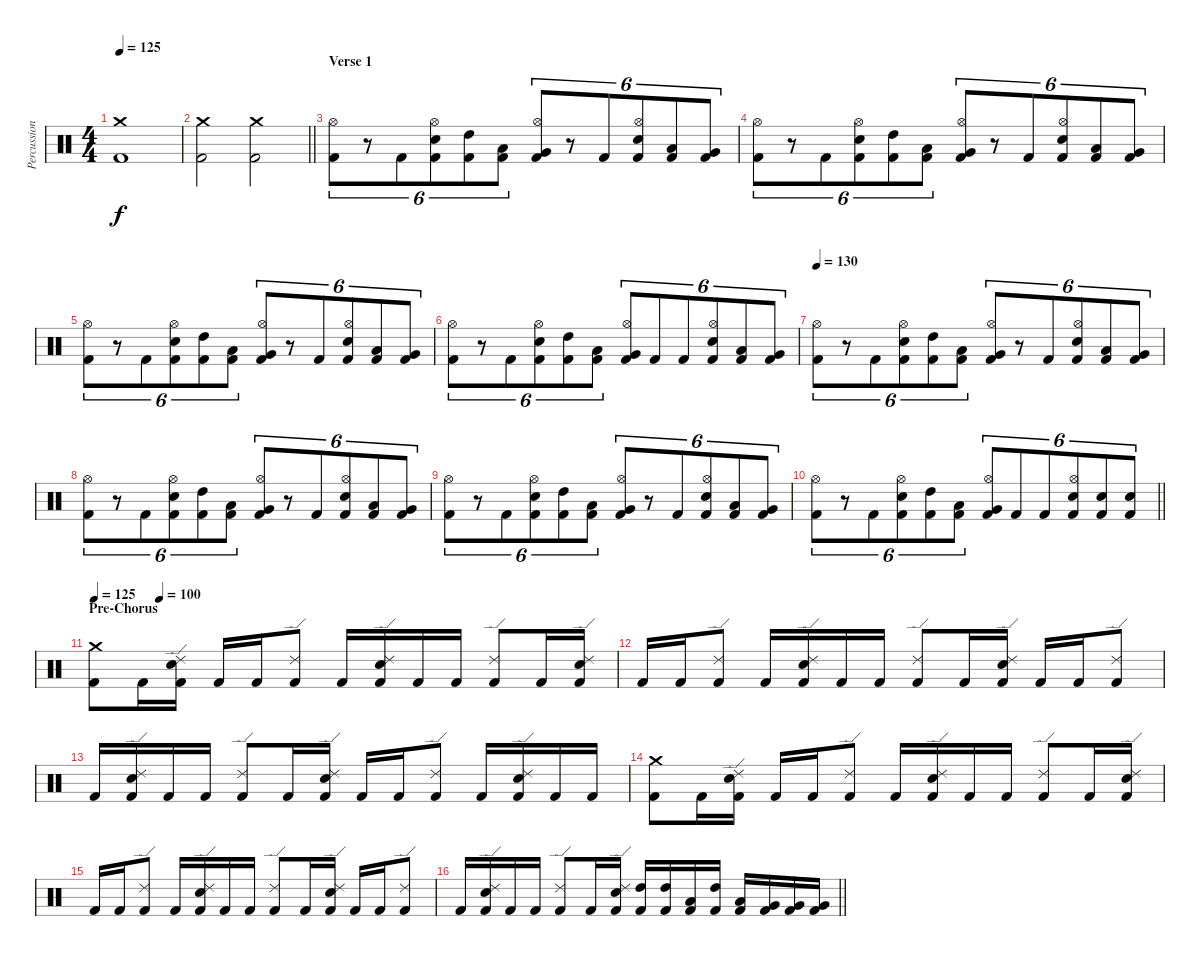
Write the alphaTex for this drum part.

\track ("Percussion" "Percussion") {instrument percussion}
\staff {score}
\articulation defaults
\ts (4 4)
\tempo 125
\clef neutral
\ks c
("Crash medium (hit)" "Kick (hit) 2").1{dy f} |
\barLineRight lightlight
("Crash medium (hit)" "Kick (hit) 2").2 ("Crash medium (hit)" "Kick (hit) 2").2 |
\section ("" "Verse 1")
("Hi-Hat (open)" "Kick (hit) 2").8{tu (6 4)} r.8{tu (6 4)} "Kick (hit) 2".8{tu (6 4)} ("Hi-Hat (open)" "Snare (hit) 2" "Kick (hit) 2").8{tu (6 4)} ("High Tom (hit)" "Kick (hit) 2").8{tu (6 4)} ("Low Tom (hit)" "Kick (hit) 2").8{tu (6 4)} ("Hi-Hat (open)" "Very Low Tom (hit)" "Kick (hit) 2").8{tu (6 4)} r.8{tu (6 4)} "Kick (hit) 2".8{tu (6 4)} ("Hi-Hat (open)" "Snare (hit) 2" "Kick (hit) 2").8{tu (6 4)} ("Low Tom (hit)" "Kick (hit) 2").8{tu (6 4)} ("Very Low Tom (hit)" "Kick (hit) 2").8{tu (6 4)} |
("Hi-Hat (open)" "Kick (hit) 2").8{tu (6 4)} r.8{tu (6 4)} "Kick (hit) 2".8{tu (6 4)} ("Hi-Hat (open)" "Snare (hit) 2" "Kick (hit) 2").8{tu (6 4)} ("High Tom (hit)" "Kick (hit) 2").8{tu (6 4)} ("Low Tom (hit)" "Kick (hit) 2").8{tu (6 4)} ("Hi-Hat (open)" "Very Low Tom (hit)" "Kick (hit) 2").8{tu (6 4)} r.8{tu (6 4)} "Kick (hit) 2".8{tu (6 4)} ("Hi-Hat (open)" "Snare (hit) 2" "Kick (hit) 2").8{tu (6 4)} ("Low Tom (hit)" "Kick (hit) 2").8{tu (6 4)} ("Very Low Tom (hit)" "Kick (hit) 2").8{tu (6 4)} |
("Hi-Hat (open)" "Kick (hit) 2").8{tu (6 4)} r.8{tu (6 4)} "Kick (hit) 2".8{tu (6 4)} ("Hi-Hat (open)" "Snare (hit) 2" "Kick (hit) 2").8{tu (6 4)} ("High Tom (hit)" "Kick (hit) 2").8{tu (6 4)} ("Low Tom (hit)" "Kick (hit) 2").8{tu (6 4)} ("Hi-Hat (open)" "Very Low Tom (hit)" "Kick (hit) 2").8{tu (6 4)} r.8{tu (6 4)} "Kick (hit) 2".8{tu (6 4)} ("Hi-Hat (open)" "Snare (hit) 2" "Kick (hit) 2").8{tu (6 4)} ("Low Tom (hit)" "Kick (hit) 2").8{tu (6 4)} ("Very Low Tom (hit)" "Kick (hit) 2").8{tu (6 4)} |
("Hi-Hat (open)" "Kick (hit) 2").8{tu (6 4)} r.8{tu (6 4)} "Kick (hit) 2".8{tu (6 4)} ("Hi-Hat (open)" "Snare (hit) 2" "Kick (hit) 2").8{tu (6 4)} ("High Tom (hit)" "Kick (hit) 2").8{tu (6 4)} ("Low Tom (hit)" "Kick (hit) 2").8{tu (6 4)} ("Hi-Hat (open)" "Very Low Tom (hit)" "Kick (hit) 2").8{tu (6 4)} "Kick (hit) 2".8{tu (6 4)} "Kick (hit) 2".8{tu (6 4)} ("Hi-Hat (open)" "Snare (hit) 2" "Kick (hit) 2").8{tu (6 4)} ("Low Tom (hit)" "Kick (hit) 2").8{tu (6 4)} ("Very Low Tom (hit)" "Kick (hit) 2").8{tu (6 4)} |
\tempo 130
("Hi-Hat (open)" "Kick (hit) 2").8{tu (6 4)} r.8{tu (6 4)} "Kick (hit) 2".8{tu (6 4)} ("Hi-Hat (open)" "Snare (hit) 2" "Kick (hit) 2").8{tu (6 4)} ("High Tom (hit)" "Kick (hit) 2").8{tu (6 4)} ("Low Tom (hit)" "Kick (hit) 2").8{tu (6 4)} ("Hi-Hat (open)" "Very Low Tom (hit)" "Kick (hit) 2").8{tu (6 4)} r.8{tu (6 4)} "Kick (hit) 2".8{tu (6 4)} ("Hi-Hat (open)" "Snare (hit) 2" "Kick (hit) 2").8{tu (6 4)} ("Low Tom (hit)" "Kick (hit) 2").8{tu (6 4)} ("Very Low Tom (hit)" "Kick (hit) 2").8{tu (6 4)} |
("Hi-Hat (open)" "Kick (hit) 2").8{tu (6 4)} r.8{tu (6 4)} "Kick (hit) 2".8{tu (6 4)} ("Hi-Hat (open)" "Snare (hit) 2" "Kick (hit) 2").8{tu (6 4)} ("High Tom (hit)" "Kick (hit) 2").8{tu (6 4)} ("Low Tom (hit)" "Kick (hit) 2").8{tu (6 4)} ("Hi-Hat (open)" "Very Low Tom (hit)" "Kick (hit) 2").8{tu (6 4)} r.8{tu (6 4)} "Kick (hit) 2".8{tu (6 4)} ("Hi-Hat (open)" "Snare (hit) 2" "Kick (hit) 2").8{tu (6 4)} ("Low Tom (hit)" "Kick (hit) 2").8{tu (6 4)} ("Very Low Tom (hit)" "Kick (hit) 2").8{tu (6 4)} |
("Hi-Hat (open)" "Kick (hit) 2").8{tu (6 4)} r.8{tu (6 4)} "Kick (hit) 2".8{tu (6 4)} ("Hi-Hat (open)" "Snare (hit) 2" "Kick (hit) 2").8{tu (6 4)} ("High Tom (hit)" "Kick (hit) 2").8{tu (6 4)} ("Low Tom (hit)" "Kick (hit) 2").8{tu (6 4)} ("Hi-Hat (open)" "Very Low Tom (hit)" "Kick (hit) 2").8{tu (6 4)} r.8{tu (6 4)} "Kick (hit) 2".8{tu (6 4)} ("Hi-Hat (open)" "Snare (hit) 2" "Kick (hit) 2").8{tu (6 4)} ("Low Tom (hit)" "Kick (hit) 2").8{tu (6 4)} ("Very Low Tom (hit)" "Kick (hit) 2").8{tu (6 4)} |
\barLineRight lightlight
("Hi-Hat (open)" "Kick (hit) 2").8{tu (6 4)} r.8{tu (6 4)} "Kick (hit) 2".8{tu (6 4)} ("Hi-Hat (open)" "Snare (hit) 2" "Kick (hit) 2").8{tu (6 4)} ("High Tom (hit)" "Kick (hit) 2").8{tu (6 4)} ("Low Tom (hit)" "Kick (hit) 2").8{tu (6 4)} ("Hi-Hat (open)" "Very Low Tom (hit)" "Kick (hit) 2").8{tu (6 4)} "Kick (hit) 2".8{tu (6 4)} "Kick (hit) 2".8{tu (6 4)} ("Hi-Hat (open)" "Snare (hit) 2" "Kick (hit) 2").8{tu (6 4)} ("Snare (hit) 2" "Kick (hit) 2").8{tu (6 4)} ("Snare (hit) 2" "Kick (hit) 2").8{tu (6 4)} |
\section ("" "Pre-Chorus")
\tempo 110
\tempo (100 0.125)
\tempo 125
("Crash medium (hit)" "Kick (hit) 2").8 "Kick (hit) 2".16 ("Ride (edge) 2" "Snare (hit) 2" "Kick (hit) 2").16 "Kick (hit) 2".16 "Kick (hit) 2".16 ("Ride (edge) 2" "Kick (hit) 2").8 "Kick (hit) 2".16 ("Ride (edge) 2" "Snare (hit) 2" "Kick (hit) 2").16 "Kick (hit) 2".16 "Kick (hit) 2".16 ("Ride (edge) 2" "Kick (hit) 2").8 "Kick (hit) 2".16 ("Ride (edge) 2" "Snare (hit) 2" "Kick (hit) 2").16 |
"Kick (hit) 2".16 "Kick (hit) 2".16 ("Ride (edge) 2" "Kick (hit) 2").8 "Kick (hit) 2".16 ("Ride (edge) 2" "Snare (hit) 2" "Kick (hit) 2").16 "Kick (hit) 2".16 "Kick (hit) 2".16 ("Ride (edge) 2" "Kick (hit) 2").8 "Kick (hit) 2".16 ("Ride (edge) 2" "Snare (hit) 2" "Kick (hit) 2").16 "Kick (hit) 2".16 "Kick (hit) 2".16 ("Ride (edge) 2" "Kick (hit) 2").8 |
"Kick (hit) 2".16 ("Ride (edge) 2" "Snare (hit) 2" "Kick (hit) 2").16 "Kick (hit) 2".16 "Kick (hit) 2".16 ("Ride (edge) 2" "Kick (hit) 2").8 "Kick (hit) 2".16 ("Ride (edge) 2" "Snare (hit) 2" "Kick (hit) 2").16 "Kick (hit) 2".16 "Kick (hit) 2".16 ("Ride (edge) 2" "Kick (hit) 2").8 "Kick (hit) 2".16 ("Ride (edge) 2" "Snare (hit) 2" "Kick (hit) 2").16 "Kick (hit) 2".16 "Kick (hit) 2".16 |
("Crash medium (hit)" "Kick (hit) 2").8 "Kick (hit) 2".16 ("Ride (edge) 2" "Snare (hit) 2" "Kick (hit) 2").16 "Kick (hit) 2".16 "Kick (hit) 2".16 ("Ride (edge) 2" "Kick (hit) 2").8 "Kick (hit) 2".16 ("Ride (edge) 2" "Snare (hit) 2" "Kick (hit) 2").16 "Kick (hit) 2".16 "Kick (hit) 2".16 ("Ride (edge) 2" "Kick (hit) 2").8 "Kick (hit) 2".16 ("Ride (edge) 2" "Snare (hit) 2" "Kick (hit) 2").16 |
"Kick (hit) 2".16 "Kick (hit) 2".16 ("Ride (edge) 2" "Kick (hit) 2").8 "Kick (hit) 2".16 ("Ride (edge) 2" "Snare (hit) 2" "Kick (hit) 2").16 "Kick (hit) 2".16 "Kick (hit) 2".16 ("Ride (edge) 2" "Kick (hit) 2").8 "Kick (hit) 2".16 ("Ride (edge) 2" "Snare (hit) 2" "Kick (hit) 2").16 "Kick (hit) 2".16 "Kick (hit) 2".16 ("Ride (edge) 2" "Kick (hit) 2").8 |
\barLineRight lightlight "Kick (hit) 2".16
("Ride (edge) 2" "Snare (hit) 2" "Kick (hit) 2").16 "Kick (hit) 2".16 "Kick (hit) 2".16 ("Ride (edge) 2" "Kick (hit) 2").8 "Kick (hit) 2".16 ("Ride (edge) 2" "Snare (hit) 2" "Kick (hit) 2").16 ("High Tom (hit)" "Kick (hit) 2").16 ("High Tom (hit)" "Kick (hit) 2").16 ("Low Tom (hit)" "Kick (hit) 2").16 ("High Tom (hit)" "Kick (hit) 2").16 ("Low Tom (hit)" "Kick (hit) 2").16 ("Very Low Tom (hit)" "Kick (hit) 2").16 ("Very Low Tom (hit)" "Kick (hit) 2").16 ("Very Low Tom (hit)" "Kick (hit) 2").16
